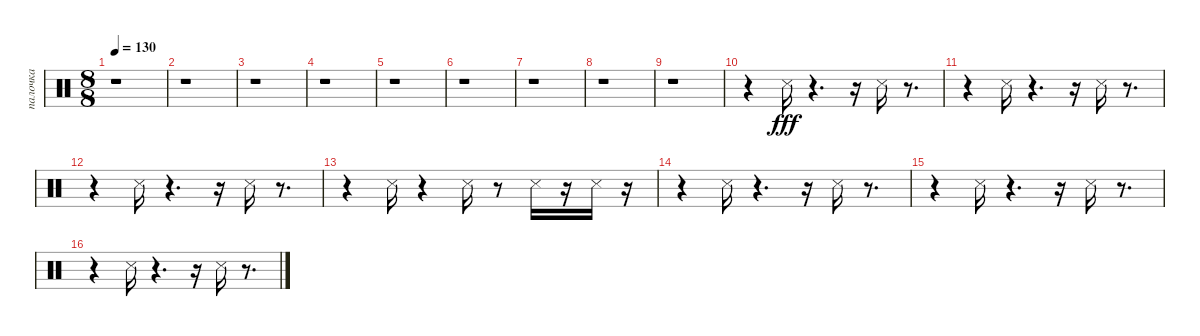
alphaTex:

\track ("палочка" "палочка") {instrument percussion}
\staff {score}
\articulation defaults
\ts (8 8)
\tempo 130
\clef neutral
\ks c
r.1{dy fff} |
r.1 |
r.1 |
r.1 |
r.1 |
r.1 |
r.1 |
r.1 |
r.1 |
r.4 "Snare (side stick) 3".16 r.4{d} r.16 "Snare (side stick) 3".16 r.8{d} |
r.4 "Snare (side stick) 3".16 r.4{d} r.16 "Snare (side stick) 3".16 r.8{d} |
r.4 "Snare (side stick) 3".16 r.4{d} r.16 "Snare (side stick) 3".16 r.8{d} |
r.4 "Snare (side stick) 3".16 r.4 "Snare (side stick) 3".16 r.8 "Snare (side stick) 3".16 r.16 "Snare (side stick) 3".16 r.16 |
r.4 "Snare (side stick) 3".16 r.4{d} r.16 "Snare (side stick) 3".16 r.8{d} |
r.4 "Snare (side stick) 3".16 r.4{d} r.16 "Snare (side stick) 3".16 r.8{d} |
r.4 "Snare (side stick) 3".16 r.4{d} r.16 "Snare (side stick) 3".16 r.8{d}
